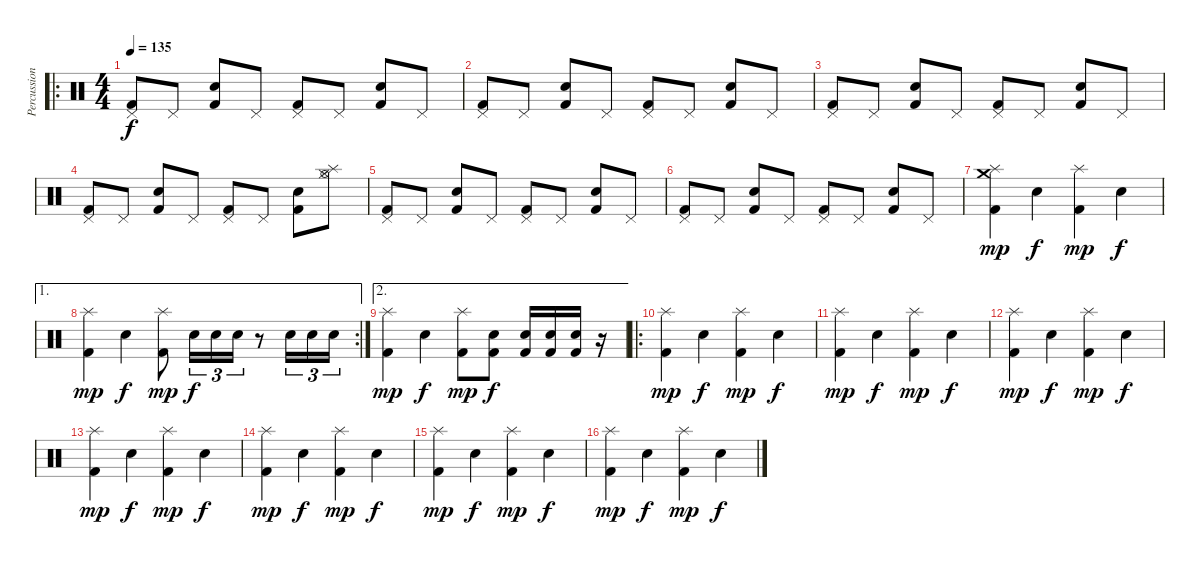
\track ("Percussion" "Percussion") {instrument percussion}
\staff {score}
\articulation defaults
\ro
\ts (4 4)
\tempo 135
\clef neutral
\ks c
("Pedal Hi-Hat (hit)" "Kick (hit) 2").8{dy f} "Pedal Hi-Hat (hit)".8 ("Snare (hit) 2" "Kick (hit) 2").8 "Pedal Hi-Hat (hit)".8 ("Pedal Hi-Hat (hit)" "Kick (hit) 2").8 "Pedal Hi-Hat (hit)".8 ("Snare (hit) 2" "Kick (hit) 2").8 "Pedal Hi-Hat (hit)".8 |
("Pedal Hi-Hat (hit)" "Kick (hit) 2").8 "Pedal Hi-Hat (hit)".8 ("Snare (hit) 2" "Kick (hit) 2").8 "Pedal Hi-Hat (hit)".8 ("Pedal Hi-Hat (hit)" "Kick (hit) 2").8 "Pedal Hi-Hat (hit)".8 ("Snare (hit) 2" "Kick (hit) 2").8 "Pedal Hi-Hat (hit)".8 |
("Pedal Hi-Hat (hit)" "Kick (hit) 2").8 "Pedal Hi-Hat (hit)".8 ("Snare (hit) 2" "Kick (hit) 2").8 "Pedal Hi-Hat (hit)".8 ("Pedal Hi-Hat (hit)" "Kick (hit) 2").8 "Pedal Hi-Hat (hit)".8 ("Snare (hit) 2" "Kick (hit) 2").8 "Pedal Hi-Hat (hit)".8 |
("Pedal Hi-Hat (hit)" "Kick (hit) 2").8 "Pedal Hi-Hat (hit)".8 ("Snare (hit) 2" "Kick (hit) 2").8 "Pedal Hi-Hat (hit)".8 ("Pedal Hi-Hat (hit)" "Kick (hit) 2").8 "Pedal Hi-Hat (hit)".8 ("Snare (hit) 2" "Kick (hit) 2").8 ("Hi-Hat (open)" "Hi-Hat (closed)" "Splash (hit)").8 |
("Pedal Hi-Hat (hit)" "Kick (hit) 2").8 "Pedal Hi-Hat (hit)".8 ("Snare (hit) 2" "Kick (hit) 2").8 "Pedal Hi-Hat (hit)".8 ("Pedal Hi-Hat (hit)" "Kick (hit) 2").8 "Pedal Hi-Hat (hit)".8 ("Snare (hit) 2" "Kick (hit) 2").8 "Pedal Hi-Hat (hit)".8 |
("Pedal Hi-Hat (hit)" "Kick (hit) 2").8 "Pedal Hi-Hat (hit)".8 ("Snare (hit) 2" "Kick (hit) 2").8 "Pedal Hi-Hat (hit)".8 ("Pedal Hi-Hat (hit)" "Kick (hit) 2").8 "Pedal Hi-Hat (hit)".8 ("Snare (hit) 2" "Kick (hit) 2").8 "Pedal Hi-Hat (hit)".8 |
("Splash (hit)" "Crash medium (hit)" "Kick (hit) 2").4{dy mp} "Snare (hit) 2".4{dy f} ("Splash (hit)" "Kick (hit) 2").4{dy mp} "Snare (hit) 2".4{dy f} |
\ae 1
\rc 2
("Splash (hit)" "Kick (hit) 2").4{dy mp} "Snare (hit) 2".4{dy f} ("Splash (hit)" "Kick (hit) 2").8{dy mp} "Snare (hit) 2".16{tu (3 2) dy f} "Snare (hit) 2".16{tu (3 2)} "Snare (hit) 2".16{tu (3 2)} r.8 "Snare (hit) 2".16{tu (3 2)} "Snare (hit) 2".16{tu (3 2)} "Snare (hit) 2".16{tu (3 2)} |
\ae 2
("Splash (hit)" "Kick (hit) 2").4{dy mp} "Snare (hit) 2".4{dy f} ("Splash (hit)" "Kick (hit) 2").8{dy mp} ("Snare (hit) 2" "Kick (hit) 2").8{dy f} ("Snare (hit) 2" "Kick (hit) 2").16 ("Snare (hit) 2" "Kick (hit) 2").16 ("Snare (hit) 2" "Kick (hit) 2").16 r.16 |
\ro
("Splash (hit)" "Kick (hit) 2").4{dy mp} "Snare (hit) 2".4{dy f} ("Splash (hit)" "Kick (hit) 2").4{dy mp} "Snare (hit) 2".4{dy f} |
("Splash (hit)" "Kick (hit) 2").4{dy mp} "Snare (hit) 2".4{dy f} ("Splash (hit)" "Kick (hit) 2").4{dy mp} "Snare (hit) 2".4{dy f} |
("Splash (hit)" "Kick (hit) 2").4{dy mp} "Snare (hit) 2".4{dy f} ("Splash (hit)" "Kick (hit) 2").4{dy mp} "Snare (hit) 2".4{dy f} |
("Splash (hit)" "Kick (hit) 2").4{dy mp} "Snare (hit) 2".4{dy f} ("Splash (hit)" "Kick (hit) 2").4{dy mp} "Snare (hit) 2".4{dy f} |
("Splash (hit)" "Kick (hit) 2").4{dy mp} "Snare (hit) 2".4{dy f} ("Splash (hit)" "Kick (hit) 2").4{dy mp} "Snare (hit) 2".4{dy f} |
("Splash (hit)" "Kick (hit) 2").4{dy mp} "Snare (hit) 2".4{dy f} ("Splash (hit)" "Kick (hit) 2").4{dy mp} "Snare (hit) 2".4{dy f} |
("Splash (hit)" "Kick (hit) 2").4{dy mp} "Snare (hit) 2".4{dy f} ("Splash (hit)" "Kick (hit) 2").4{dy mp} "Snare (hit) 2".4{dy f}
